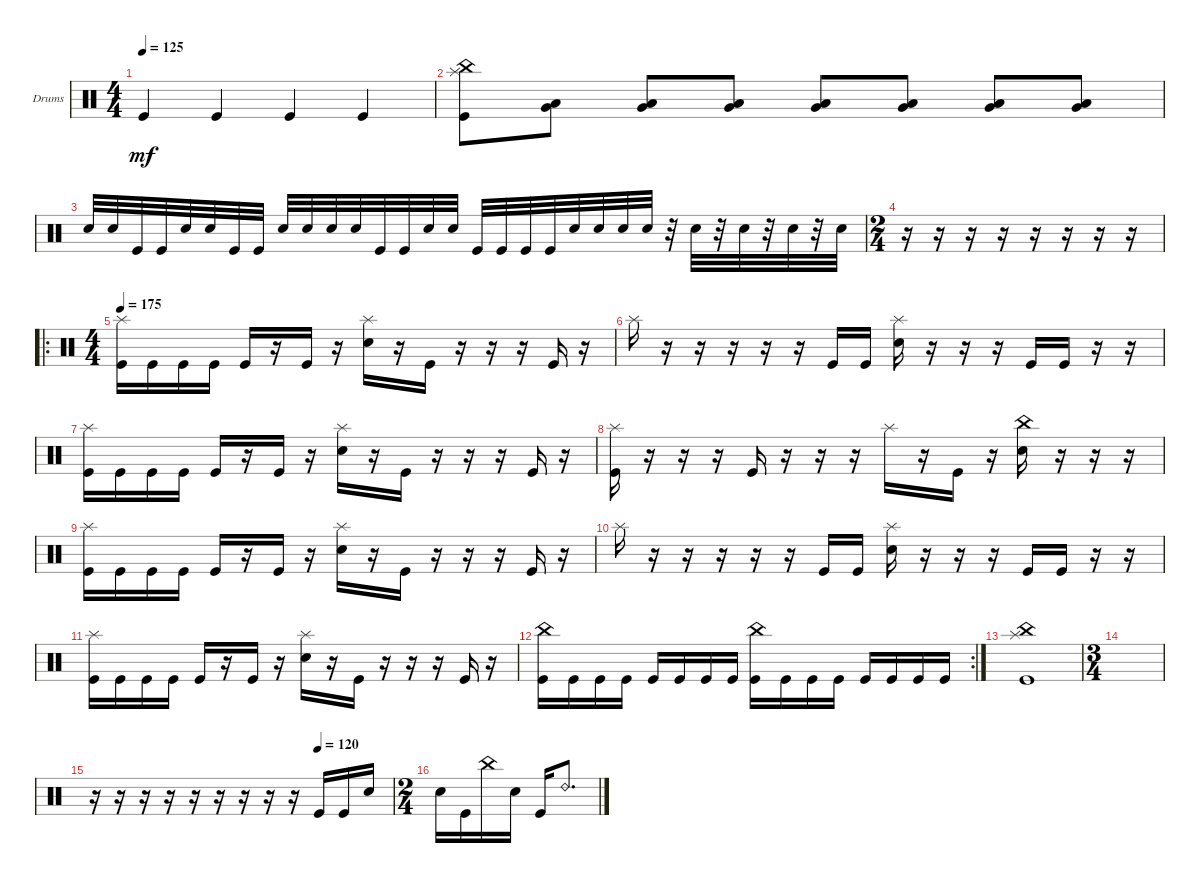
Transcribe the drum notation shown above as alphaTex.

\bracketExtendMode groupsimilarinstruments
\firstSystemTrackNameOrientation horizontal
\otherSystemsTrackNameOrientation horizontal
\track ("Drumkit" "Drums") {solo instrument percussion}
\staff {score}
\articulation defaults
\ts (4 4)
\tempo 125
\clef neutral
\ks c "Kick (hit)".4{dy mf} "Kick (hit)".4 "Kick (hit)".4 "Kick (hit)".4
|
("Kick (hit)" "Splash (hit)" "China (hit)").8 ("Very Low Tom (hit)" "Low Tom (hit)").8 ("Low Tom (hit)" "Very Low Tom (hit)").8 ("Very Low Tom (hit)" "Low Tom (hit)").8 ("Low Tom (hit)" "Very Low Tom (hit)").8 ("Very Low Tom (hit)" "Low Tom (hit)").8 ("Low Tom (hit)" "Very Low Tom (hit)").8 ("Very Low Tom (hit)" "Low Tom (hit)").8 |
"Snare (hit) 2".32 "Snare (hit) 2".32 "Kick (hit)".32 "Kick (hit)".32 "Snare (hit) 2".32 "Snare (hit) 2".32 "Kick (hit)".32 "Kick (hit)".32 "Snare (hit) 2".32 "Snare (hit) 2".32 "Snare (hit) 2".32 "Snare (hit) 2".32 "Kick (hit)".32 "Kick (hit)".32 "Snare (hit) 2".32 "Snare (hit) 2".32 "Kick (hit)".32 "Kick (hit)".32 "Kick (hit)".32 "Kick (hit)".32 "Snare (hit) 2".32 "Snare (hit) 2".32 "Snare (hit) 2".32 "Snare (hit) 2".32 r.32 "Snare (hit) 2".32 r.32 "Snare (hit) 2".32 r.32 "Snare (hit) 2".32 r.32 "Snare (hit) 2".32 |
\ts (2 4)
r.16 r.16 r.16 r.16 r.16 r.16 r.16 r.16 |
\ro
\ts (4 4)
\tempo 175
("Splash (hit)" "Kick (hit)").16 "Kick (hit)".16 "Kick (hit)".16 "Kick (hit)".16 "Kick (hit)".16 r.16 "Kick (hit)".16 r.16 ("Splash (hit)" "Snare (hit) 2").16 r.16 "Kick (hit)".16 r.16 r.16 r.16 "Kick (hit)".16 r.16 |
"Splash (hit)".16 r.16 r.16 r.16 r.16 r.16 "Kick (hit)".16 "Kick (hit)".16 ("Splash (hit)" "Snare (hit) 2").16 r.16 r.16 r.16 "Kick (hit)".16 "Kick (hit)".16 r.16 r.16 |
("Splash (hit)" "Kick (hit)").16 "Kick (hit)".16 "Kick (hit)".16 "Kick (hit)".16 "Kick (hit)".16 r.16 "Kick (hit)".16 r.16 ("Splash (hit)" "Snare (hit) 2").16 r.16 "Kick (hit)".16 r.16 r.16 r.16 "Kick (hit)".16 r.16 |
("Splash (hit)" "Kick (hit)").16 r.16 r.16 r.16 "Kick (hit)".16 r.16 r.16 r.16 "Splash (hit)".16 r.16 "Kick (hit)".16 r.16 ("China (hit)" "Snare (hit) 2").16 r.16 r.16 r.16 |
("Splash (hit)" "Kick (hit)").16 "Kick (hit)".16 "Kick (hit)".16 "Kick (hit)".16 "Kick (hit)".16 r.16 "Kick (hit)".16 r.16 ("Splash (hit)" "Snare (hit) 2").16 r.16 "Kick (hit)".16 r.16 r.16 r.16 "Kick (hit)".16 r.16 |
"Splash (hit)".16 r.16 r.16 r.16 r.16 r.16 "Kick (hit)".16 "Kick (hit)".16 ("Splash (hit)" "Snare (hit) 2").16 r.16 r.16 r.16 "Kick (hit)".16 "Kick (hit)".16 r.16 r.16 |
("Splash (hit)" "Kick (hit)").16 "Kick (hit)".16 "Kick (hit)".16 "Kick (hit)".16 "Kick (hit)".16 r.16 "Kick (hit)".16 r.16 ("Splash (hit)" "Snare (hit) 2").16 r.16 "Kick (hit)".16 r.16 r.16 r.16 "Kick (hit)".16 r.16 |
\rc 2
("China (hit)" "Kick (hit)").16 "Kick (hit)".16 "Kick (hit)".16 "Kick (hit)".16 "Kick (hit)".16 "Kick (hit)".16 "Kick (hit)".16 "Kick (hit)".16 ("China (hit)" "Kick (hit)").16 "Kick (hit)".16 "Kick (hit)".16 "Kick (hit)".16 "Kick (hit)".16 "Kick (hit)".16 "Kick (hit)".16 "Kick (hit)".16 |
("Splash (hit)" "China (hit)" "Kick (hit)").1 |
\ts (3 4)
|
\tempo (120 0.75)
r.16 r.16 r.16 r.16 r.16 r.16 r.16 r.16 r.16 "Kick (hit)".16 "Kick (hit)".16 "Snare (hit) 2".16 |
\ts (2 4)
"Snare (hit) 2".16 "Kick (hit)".16 "China (hit)".16 "Snare (hit) 2".16 "Kick (hit)".16 "Ride (bell) 2".8{d}
